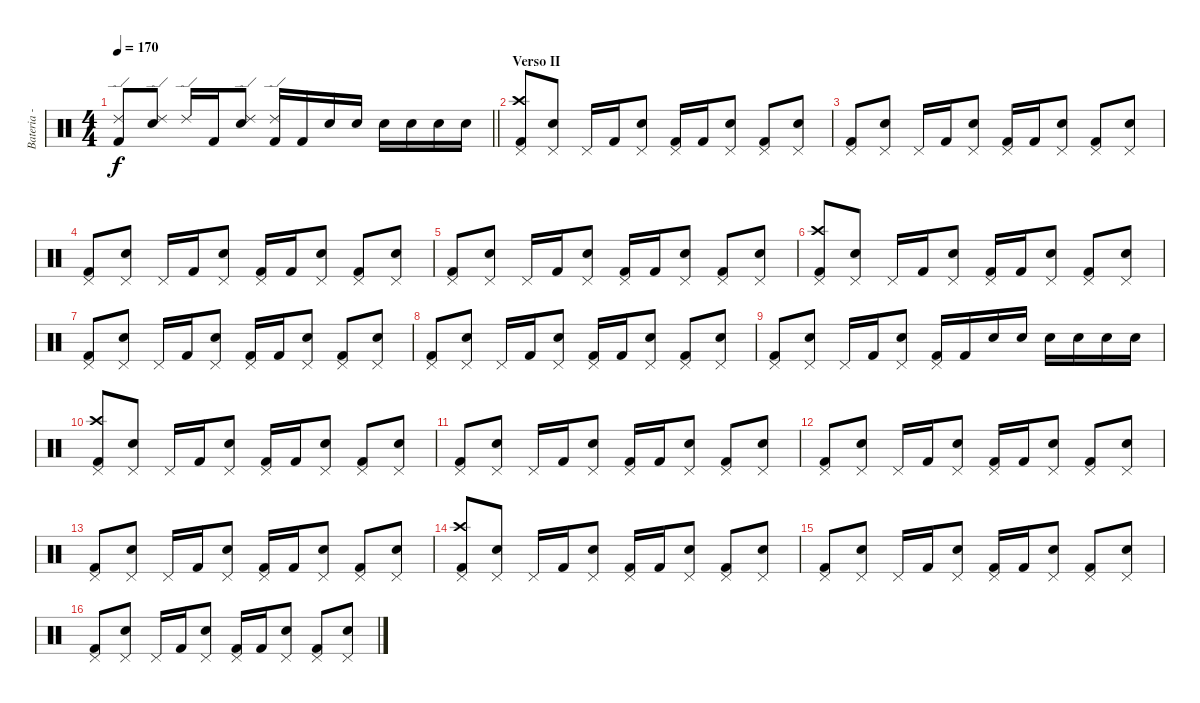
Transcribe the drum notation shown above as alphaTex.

\track ("Bateria - Larzon" "Bateria - ") {instrument percussion}
\staff {score}
\articulation defaults
\ts (4 4)
\tempo 170
\clef neutral
\barLineRight lightlight
\ks c
("Kick (hit) 2" "Ride (edge) 2").8{dy f} ("Snare (hit) 2" "Ride (edge) 2").8 "Ride (edge) 2".16 "Kick (hit) 2".16 ("Snare (hit) 2" "Ride (edge) 2").8 ("Kick (hit) 2" "Ride (edge) 2").16 "Kick (hit) 2".16 "Snare (hit) 2".16 "Snare (hit) 2".16 "Snare (hit) 2".16 "Snare (hit) 2".16 "Snare (hit) 2".16 "Snare (hit) 2".16 |
\section ("" "Verso II")
("Kick (hit) 2" "Crash high (hit)" "Pedal Hi-Hat (hit)").8 ("Snare (hit) 2" "Pedal Hi-Hat (hit)").8 "Pedal Hi-Hat (hit)".16 "Kick (hit) 2".16 ("Snare (hit) 2" "Pedal Hi-Hat (hit)").8 ("Kick (hit) 2" "Pedal Hi-Hat (hit)").16 "Kick (hit) 2".16 ("Snare (hit) 2" "Pedal Hi-Hat (hit)").8 ("Kick (hit) 2" "Pedal Hi-Hat (hit)").8 ("Snare (hit) 2" "Pedal Hi-Hat (hit)").8 |
("Kick (hit) 2" "Pedal Hi-Hat (hit)").8 ("Snare (hit) 2" "Pedal Hi-Hat (hit)").8 "Pedal Hi-Hat (hit)".16 "Kick (hit) 2".16 ("Snare (hit) 2" "Pedal Hi-Hat (hit)").8 ("Kick (hit) 2" "Pedal Hi-Hat (hit)").16 "Kick (hit) 2".16 ("Snare (hit) 2" "Pedal Hi-Hat (hit)").8 ("Kick (hit) 2" "Pedal Hi-Hat (hit)").8 ("Snare (hit) 2" "Pedal Hi-Hat (hit)").8 |
("Kick (hit) 2" "Pedal Hi-Hat (hit)").8 ("Snare (hit) 2" "Pedal Hi-Hat (hit)").8 "Pedal Hi-Hat (hit)".16 "Kick (hit) 2".16 ("Snare (hit) 2" "Pedal Hi-Hat (hit)").8 ("Kick (hit) 2" "Pedal Hi-Hat (hit)").16 "Kick (hit) 2".16 ("Snare (hit) 2" "Pedal Hi-Hat (hit)").8 ("Kick (hit) 2" "Pedal Hi-Hat (hit)").8 ("Snare (hit) 2" "Pedal Hi-Hat (hit)").8 |
("Kick (hit) 2" "Pedal Hi-Hat (hit)").8 ("Snare (hit) 2" "Pedal Hi-Hat (hit)").8 "Pedal Hi-Hat (hit)".16 "Kick (hit) 2".16 ("Snare (hit) 2" "Pedal Hi-Hat (hit)").8 ("Kick (hit) 2" "Pedal Hi-Hat (hit)").16 "Kick (hit) 2".16 ("Snare (hit) 2" "Pedal Hi-Hat (hit)").8 ("Kick (hit) 2" "Pedal Hi-Hat (hit)").8 ("Snare (hit) 2" "Pedal Hi-Hat (hit)").8 |
("Kick (hit) 2" "Crash high (hit)" "Pedal Hi-Hat (hit)").8 ("Snare (hit) 2" "Pedal Hi-Hat (hit)").8 "Pedal Hi-Hat (hit)".16 "Kick (hit) 2".16 ("Snare (hit) 2" "Pedal Hi-Hat (hit)").8 ("Kick (hit) 2" "Pedal Hi-Hat (hit)").16 "Kick (hit) 2".16 ("Snare (hit) 2" "Pedal Hi-Hat (hit)").8 ("Kick (hit) 2" "Pedal Hi-Hat (hit)").8 ("Snare (hit) 2" "Pedal Hi-Hat (hit)").8 |
("Kick (hit) 2" "Pedal Hi-Hat (hit)").8 ("Snare (hit) 2" "Pedal Hi-Hat (hit)").8 "Pedal Hi-Hat (hit)".16 "Kick (hit) 2".16 ("Snare (hit) 2" "Pedal Hi-Hat (hit)").8 ("Kick (hit) 2" "Pedal Hi-Hat (hit)").16 "Kick (hit) 2".16 ("Snare (hit) 2" "Pedal Hi-Hat (hit)").8 ("Kick (hit) 2" "Pedal Hi-Hat (hit)").8 ("Snare (hit) 2" "Pedal Hi-Hat (hit)").8 |
("Kick (hit) 2" "Pedal Hi-Hat (hit)").8 ("Snare (hit) 2" "Pedal Hi-Hat (hit)").8 "Pedal Hi-Hat (hit)".16 "Kick (hit) 2".16 ("Snare (hit) 2" "Pedal Hi-Hat (hit)").8 ("Kick (hit) 2" "Pedal Hi-Hat (hit)").16 "Kick (hit) 2".16 ("Snare (hit) 2" "Pedal Hi-Hat (hit)").8 ("Kick (hit) 2" "Pedal Hi-Hat (hit)").8 ("Snare (hit) 2" "Pedal Hi-Hat (hit)").8 |
("Kick (hit) 2" "Pedal Hi-Hat (hit)").8 ("Snare (hit) 2" "Pedal Hi-Hat (hit)").8 "Pedal Hi-Hat (hit)".16 "Kick (hit) 2".16 ("Snare (hit) 2" "Pedal Hi-Hat (hit)").8 ("Kick (hit) 2" "Pedal Hi-Hat (hit)").16 "Kick (hit) 2".16 "Snare (hit) 2".16 "Snare (hit) 2".16 "Snare (hit) 2".16 "Snare (hit) 2".16 "Snare (hit) 2".16 "Snare (hit) 2".16 |
("Kick (hit) 2" "Crash high (hit)" "Pedal Hi-Hat (hit)").8 ("Snare (hit) 2" "Pedal Hi-Hat (hit)").8 "Pedal Hi-Hat (hit)".16 "Kick (hit) 2".16 ("Snare (hit) 2" "Pedal Hi-Hat (hit)").8 ("Kick (hit) 2" "Pedal Hi-Hat (hit)").16 "Kick (hit) 2".16 ("Snare (hit) 2" "Pedal Hi-Hat (hit)").8 ("Kick (hit) 2" "Pedal Hi-Hat (hit)").8 ("Snare (hit) 2" "Pedal Hi-Hat (hit)").8 |
("Kick (hit) 2" "Pedal Hi-Hat (hit)").8 ("Snare (hit) 2" "Pedal Hi-Hat (hit)").8 "Pedal Hi-Hat (hit)".16 "Kick (hit) 2".16 ("Snare (hit) 2" "Pedal Hi-Hat (hit)").8 ("Kick (hit) 2" "Pedal Hi-Hat (hit)").16 "Kick (hit) 2".16 ("Snare (hit) 2" "Pedal Hi-Hat (hit)").8 ("Kick (hit) 2" "Pedal Hi-Hat (hit)").8 ("Snare (hit) 2" "Pedal Hi-Hat (hit)").8 |
("Kick (hit) 2" "Pedal Hi-Hat (hit)").8 ("Snare (hit) 2" "Pedal Hi-Hat (hit)").8 "Pedal Hi-Hat (hit)".16 "Kick (hit) 2".16 ("Snare (hit) 2" "Pedal Hi-Hat (hit)").8 ("Kick (hit) 2" "Pedal Hi-Hat (hit)").16 "Kick (hit) 2".16 ("Snare (hit) 2" "Pedal Hi-Hat (hit)").8 ("Kick (hit) 2" "Pedal Hi-Hat (hit)").8 ("Snare (hit) 2" "Pedal Hi-Hat (hit)").8 |
("Kick (hit) 2" "Pedal Hi-Hat (hit)").8 ("Snare (hit) 2" "Pedal Hi-Hat (hit)").8 "Pedal Hi-Hat (hit)".16 "Kick (hit) 2".16 ("Snare (hit) 2" "Pedal Hi-Hat (hit)").8 ("Kick (hit) 2" "Pedal Hi-Hat (hit)").16 "Kick (hit) 2".16 ("Snare (hit) 2" "Pedal Hi-Hat (hit)").8 ("Kick (hit) 2" "Pedal Hi-Hat (hit)").8 ("Snare (hit) 2" "Pedal Hi-Hat (hit)").8 |
("Kick (hit) 2" "Crash high (hit)" "Pedal Hi-Hat (hit)").8 ("Snare (hit) 2" "Pedal Hi-Hat (hit)").8 "Pedal Hi-Hat (hit)".16 "Kick (hit) 2".16 ("Snare (hit) 2" "Pedal Hi-Hat (hit)").8 ("Kick (hit) 2" "Pedal Hi-Hat (hit)").16 "Kick (hit) 2".16 ("Snare (hit) 2" "Pedal Hi-Hat (hit)").8 ("Kick (hit) 2" "Pedal Hi-Hat (hit)").8 ("Snare (hit) 2" "Pedal Hi-Hat (hit)").8 |
("Kick (hit) 2" "Pedal Hi-Hat (hit)").8 ("Snare (hit) 2" "Pedal Hi-Hat (hit)").8 "Pedal Hi-Hat (hit)".16 "Kick (hit) 2".16 ("Snare (hit) 2" "Pedal Hi-Hat (hit)").8 ("Kick (hit) 2" "Pedal Hi-Hat (hit)").16 "Kick (hit) 2".16 ("Snare (hit) 2" "Pedal Hi-Hat (hit)").8 ("Kick (hit) 2" "Pedal Hi-Hat (hit)").8 ("Snare (hit) 2" "Pedal Hi-Hat (hit)").8 |
("Kick (hit) 2" "Pedal Hi-Hat (hit)").8 ("Snare (hit) 2" "Pedal Hi-Hat (hit)").8 "Pedal Hi-Hat (hit)".16 "Kick (hit) 2".16 ("Snare (hit) 2" "Pedal Hi-Hat (hit)").8 ("Kick (hit) 2" "Pedal Hi-Hat (hit)").16 "Kick (hit) 2".16 ("Snare (hit) 2" "Pedal Hi-Hat (hit)").8 ("Kick (hit) 2" "Pedal Hi-Hat (hit)").8 ("Snare (hit) 2" "Pedal Hi-Hat (hit)").8
